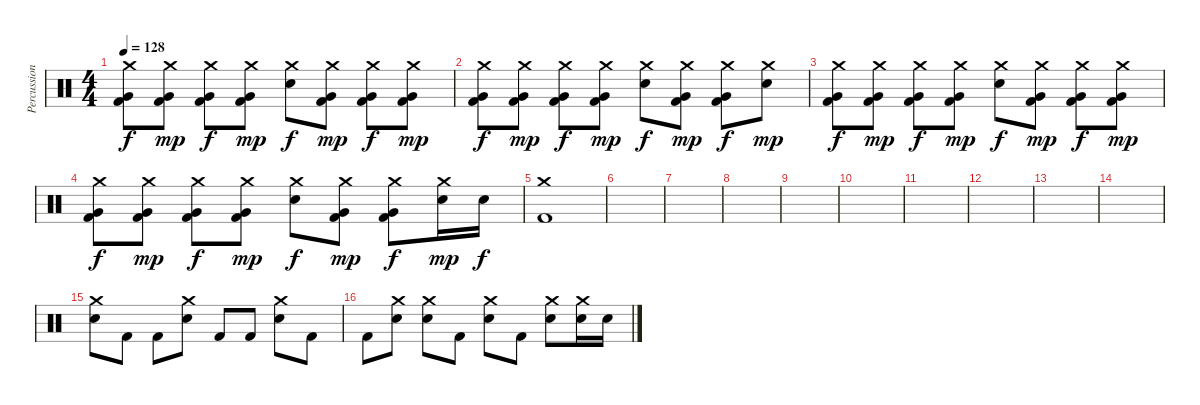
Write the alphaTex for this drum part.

\track ("Percussion" "Percussion") {instrument percussion}
\staff {score}
\articulation defaults
\ts (4 4)
\tempo 128
\clef neutral
\ks c
("Crash medium (hit)" "Very Low Tom (hit)" "Kick (hit) 2").8{dy f} ("Crash medium (hit)" "Very Low Tom (hit)" "Kick (hit) 2").8{dy mp} ("Crash medium (hit)" "Very Low Tom (hit)" "Kick (hit) 2").8{dy f} ("Crash medium (hit)" "Very Low Tom (hit)" "Kick (hit) 2").8{dy mp} ("Crash medium (hit)" "Snare (hit) 2").8{dy f} ("Crash medium (hit)" "Very Low Tom (hit)" "Kick (hit) 2").8{dy mp} ("Crash medium (hit)" "Very Low Tom (hit)" "Kick (hit) 2").8{dy f} ("Crash medium (hit)" "Very Low Tom (hit)" "Kick (hit) 2").8{dy mp} |
("Crash medium (hit)" "Very Low Tom (hit)" "Kick (hit) 2").8{dy f} ("Crash medium (hit)" "Very Low Tom (hit)" "Kick (hit) 2").8{dy mp} ("Crash medium (hit)" "Very Low Tom (hit)" "Kick (hit) 2").8{dy f} ("Crash medium (hit)" "Very Low Tom (hit)" "Kick (hit) 2").8{dy mp} ("Crash medium (hit)" "Snare (hit) 2").8{dy f} ("Crash medium (hit)" "Very Low Tom (hit)" "Kick (hit) 2").8{dy mp} ("Crash medium (hit)" "Very Low Tom (hit)" "Kick (hit) 2").8{dy f} ("Crash medium (hit)" "Snare (hit) 2").8{dy mp} |
("Crash medium (hit)" "Very Low Tom (hit)" "Kick (hit) 2").8{dy f} ("Crash medium (hit)" "Very Low Tom (hit)" "Kick (hit) 2").8{dy mp} ("Crash medium (hit)" "Very Low Tom (hit)" "Kick (hit) 2").8{dy f} ("Crash medium (hit)" "Very Low Tom (hit)" "Kick (hit) 2").8{dy mp} ("Crash medium (hit)" "Snare (hit) 2").8{dy f} ("Crash medium (hit)" "Very Low Tom (hit)" "Kick (hit) 2").8{dy mp} ("Crash medium (hit)" "Very Low Tom (hit)" "Kick (hit) 2").8{dy f} ("Crash medium (hit)" "Very Low Tom (hit)" "Kick (hit) 2").8{dy mp} |
("Crash medium (hit)" "Very Low Tom (hit)" "Kick (hit) 2").8{dy f} ("Crash medium (hit)" "Very Low Tom (hit)" "Kick (hit) 2").8{dy mp} ("Crash medium (hit)" "Very Low Tom (hit)" "Kick (hit) 2").8{dy f} ("Crash medium (hit)" "Very Low Tom (hit)" "Kick (hit) 2").8{dy mp} ("Crash medium (hit)" "Snare (hit) 2").8{dy f} ("Crash medium (hit)" "Very Low Tom (hit)" "Kick (hit) 2").8{dy mp} ("Crash medium (hit)" "Very Low Tom (hit)" "Kick (hit) 2").8{dy f} ("Crash medium (hit)" "Snare (hit) 2").16{dy mp} "Snare (hit) 2".16{dy f} |
("Crash medium (hit)" "Kick (hit) 2").1 |
|
|
|
|
|
|
|
|
|
("Crash medium (hit)" "Snare (hit) 2").8 "Kick (hit) 2".8 "Kick (hit) 2".8 ("Crash medium (hit)" "Snare (hit) 2").8 "Kick (hit) 2".8 "Kick (hit) 2".8 ("Crash medium (hit)" "Snare (hit) 2").8 "Kick (hit) 2".8 |
"Kick (hit) 2".8 ("Crash medium (hit)" "Snare (hit) 2").8 ("Crash medium (hit)" "Snare (hit) 2").8 "Kick (hit) 2".8 ("Crash medium (hit)" "Snare (hit) 2").8 "Kick (hit) 2".8 ("Crash medium (hit)" "Snare (hit) 2").8 ("Crash medium (hit)" "Snare (hit) 2").16 "Snare (hit) 2".16
